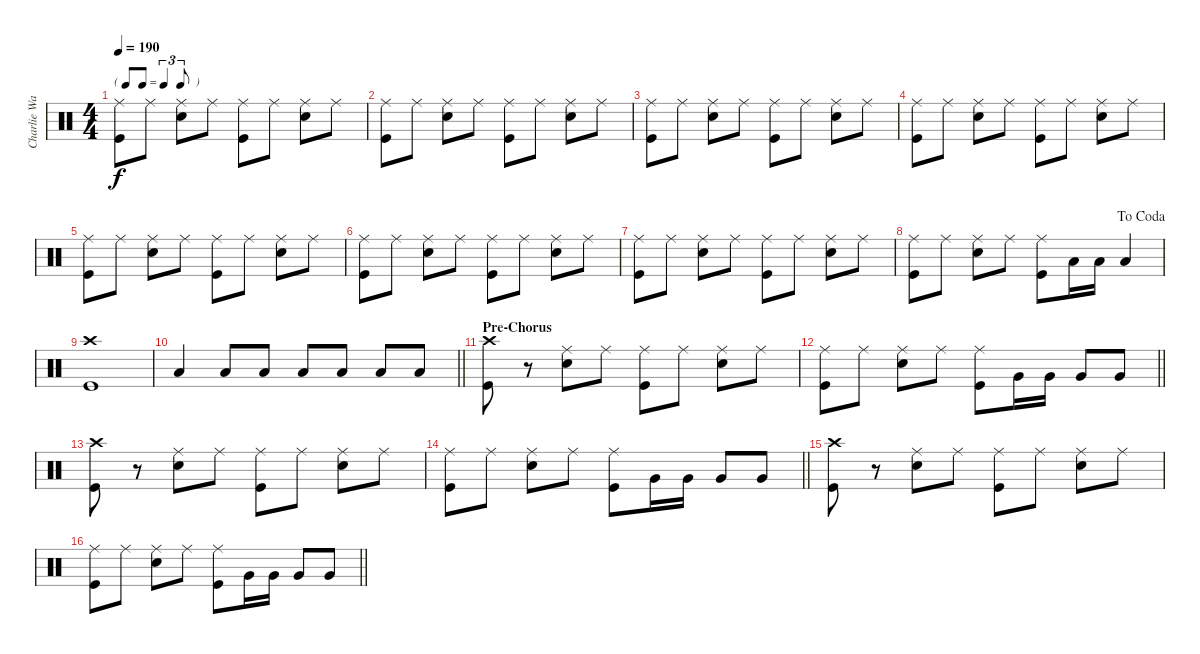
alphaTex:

\track ("Charlie Watts" "Charlie Wa") {instrument percussion}
\staff {score}
\articulation defaults
\ts (4 4)
\tf triplet8th
\tempo 190
\clef neutral
\ks c
("Ride (middle)" "Kick (hit)").8{dy f} "Ride (middle)".8 ("Ride (middle)" "Snare (hit) 2").8 "Ride (middle)".8 ("Ride (middle)" "Kick (hit)").8 "Ride (middle)".8 ("Ride (middle)" "Snare (hit) 2").8 "Ride (middle)".8 |
("Ride (middle)" "Kick (hit)").8 "Ride (middle)".8 ("Ride (middle)" "Snare (hit) 2").8 "Ride (middle)".8 ("Ride (middle)" "Kick (hit)").8 "Ride (middle)".8 ("Ride (middle)" "Snare (hit) 2").8 "Ride (middle)".8 |
("Ride (middle)" "Kick (hit)").8 "Ride (middle)".8 ("Ride (middle)" "Snare (hit) 2").8 "Ride (middle)".8 ("Ride (middle)" "Kick (hit)").8 "Ride (middle)".8 ("Ride (middle)" "Snare (hit) 2").8 "Ride (middle)".8 |
("Ride (middle)" "Kick (hit)").8 "Ride (middle)".8 ("Ride (middle)" "Snare (hit) 2").8 "Ride (middle)".8 ("Ride (middle)" "Kick (hit)").8 "Ride (middle)".8 ("Ride (middle)" "Snare (hit) 2").8 "Ride (middle)".8 |
("Ride (middle)" "Kick (hit)").8 "Ride (middle)".8 ("Ride (middle)" "Snare (hit) 2").8 "Ride (middle)".8 ("Ride (middle)" "Kick (hit)").8 "Ride (middle)".8 ("Ride (middle)" "Snare (hit) 2").8 "Ride (middle)".8 |
("Ride (middle)" "Kick (hit)").8 "Ride (middle)".8 ("Ride (middle)" "Snare (hit) 2").8 "Ride (middle)".8 ("Ride (middle)" "Kick (hit)").8 "Ride (middle)".8 ("Ride (middle)" "Snare (hit) 2").8 "Ride (middle)".8 |
("Ride (middle)" "Kick (hit)").8 "Ride (middle)".8 ("Ride (middle)" "Snare (hit) 2").8 "Ride (middle)".8 ("Ride (middle)" "Kick (hit)").8 "Ride (middle)".8 ("Ride (middle)" "Snare (hit) 2").8 "Ride (middle)".8 |
\jump dacoda
("Ride (middle)" "Kick (hit)").8 "Ride (middle)".8 ("Ride (middle)" "Snare (hit) 2").8 "Ride (middle)".8 ("Ride (middle)" "Kick (hit)").8 "Low Tom (hit)".16 "Low Tom (hit)".16 "Low Tom (hit)".4 |
("Crash high (hit)" "Kick (hit)").1 |
\barLineRight lightlight "Low Tom (hit)".4 "Low Tom (hit)".8 "Low Tom (hit)".8 "Low Tom (hit)".8 "Low Tom (hit)".8 "Low Tom (hit)".8 "Low Tom (hit)".8
|
\section ("" "Pre-Chorus")
("Crash high (hit)" "Kick (hit)").8 r.8 ("Ride (middle)" "Snare (hit) 2").8 "Ride (middle)".8 ("Ride (middle)" "Kick (hit)").8 "Ride (middle)".8 ("Ride (middle)" "Snare (hit) 2").8 "Ride (middle)".8 |
\barLineRight lightlight
("Ride (middle)" "Kick (hit)").8 "Ride (middle)".8 ("Ride (middle)" "Snare (hit) 2").8 "Ride (middle)".8 ("Ride (middle)" "Kick (hit)").8 "Very Low Tom (hit)".16 "Very Low Tom (hit)".16 "Very Low Tom (hit)".8 "Very Low Tom (hit)".8 |
("Crash high (hit)" "Kick (hit)").8 r.8 ("Ride (middle)" "Snare (hit) 2").8 "Ride (middle)".8 ("Ride (middle)" "Kick (hit)").8 "Ride (middle)".8 ("Ride (middle)" "Snare (hit) 2").8 "Ride (middle)".8 |
\barLineRight lightlight
("Ride (middle)" "Kick (hit)").8 "Ride (middle)".8 ("Ride (middle)" "Snare (hit) 2").8 "Ride (middle)".8 ("Ride (middle)" "Kick (hit)").8 "Very Low Tom (hit)".16 "Very Low Tom (hit)".16 "Very Low Tom (hit)".8 "Very Low Tom (hit)".8 |
("Crash high (hit)" "Kick (hit)").8 r.8 ("Ride (middle)" "Snare (hit) 2").8 "Ride (middle)".8 ("Ride (middle)" "Kick (hit)").8 "Ride (middle)".8 ("Ride (middle)" "Snare (hit) 2").8 "Ride (middle)".8 |
\barLineRight lightlight
("Ride (middle)" "Kick (hit)").8 "Ride (middle)".8 ("Ride (middle)" "Snare (hit) 2").8 "Ride (middle)".8 ("Ride (middle)" "Kick (hit)").8 "Very Low Tom (hit)".16 "Very Low Tom (hit)".16 "Very Low Tom (hit)".8 "Very Low Tom (hit)".8
